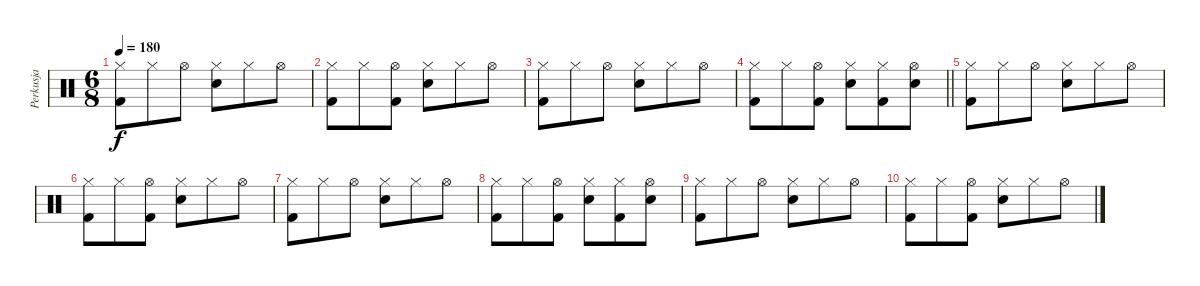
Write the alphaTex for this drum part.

\track ("Perkusja" "Perkusja") {instrument percussion}
\staff {score}
\articulation defaults
\ts (6 8)
\tempo 180
\clef neutral
\ks c
("Hi-Hat (closed)" "Kick (hit) 2").8{dy f} "Hi-Hat (closed)".8 "Hi-Hat (open)".8 ("Hi-Hat (closed)" "Snare (hit) 2").8 "Hi-Hat (closed)".8 "Hi-Hat (open)".8 |
("Hi-Hat (closed)" "Kick (hit) 2").8 "Hi-Hat (closed)".8 ("Hi-Hat (open)" "Kick (hit) 2").8 ("Hi-Hat (closed)" "Snare (hit) 2").8 "Hi-Hat (closed)".8 "Hi-Hat (open)".8 |
("Hi-Hat (closed)" "Kick (hit) 2").8 "Hi-Hat (closed)".8 "Hi-Hat (open)".8 ("Hi-Hat (closed)" "Snare (hit) 2").8 "Hi-Hat (closed)".8 "Hi-Hat (open)".8 |
\barLineRight lightlight
("Hi-Hat (closed)" "Kick (hit) 2").8 "Hi-Hat (closed)".8 ("Hi-Hat (open)" "Kick (hit) 2").8 ("Hi-Hat (closed)" "Snare (hit) 2").8 ("Hi-Hat (closed)" "Kick (hit) 2").8 ("Hi-Hat (open)" "Snare (hit) 2").8 |
("Hi-Hat (closed)" "Kick (hit) 2").8 "Hi-Hat (closed)".8 "Hi-Hat (open)".8 ("Hi-Hat (closed)" "Snare (hit) 2").8 "Hi-Hat (closed)".8 "Hi-Hat (open)".8 |
("Hi-Hat (closed)" "Kick (hit) 2").8 "Hi-Hat (closed)".8 ("Hi-Hat (open)" "Kick (hit) 2").8 ("Hi-Hat (closed)" "Snare (hit) 2").8 "Hi-Hat (closed)".8 "Hi-Hat (open)".8 |
("Hi-Hat (closed)" "Kick (hit) 2").8 "Hi-Hat (closed)".8 "Hi-Hat (open)".8 ("Hi-Hat (closed)" "Snare (hit) 2").8 "Hi-Hat (closed)".8 "Hi-Hat (open)".8 |
("Hi-Hat (closed)" "Kick (hit) 2").8 "Hi-Hat (closed)".8 ("Hi-Hat (open)" "Kick (hit) 2").8 ("Hi-Hat (closed)" "Snare (hit) 2").8 ("Hi-Hat (closed)" "Kick (hit) 2").8 ("Hi-Hat (open)" "Snare (hit) 2").8 |
("Hi-Hat (closed)" "Kick (hit) 2").8 "Hi-Hat (closed)".8 "Hi-Hat (open)".8 ("Hi-Hat (closed)" "Snare (hit) 2").8 "Hi-Hat (closed)".8 "Hi-Hat (open)".8 |
("Hi-Hat (closed)" "Kick (hit) 2").8 "Hi-Hat (closed)".8 ("Hi-Hat (open)" "Kick (hit) 2").8 ("Hi-Hat (closed)" "Snare (hit) 2").8 "Hi-Hat (closed)".8 "Hi-Hat (open)".8
